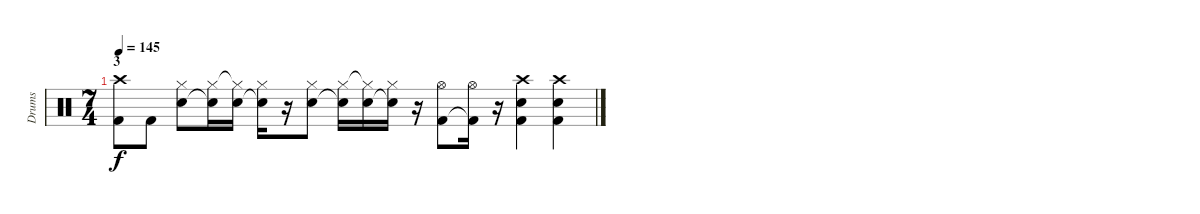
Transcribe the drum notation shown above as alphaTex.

\track ("Drums" "Drums") {instrument percussion}
\staff {score}
\articulation defaults
\ts (7 4)
\section ("" "3")
\tempo 145
\clef neutral
\ks c
("Crash high (hit)" "Kick (hit) 2").8{dy f} "Kick (hit) 2".8 ("Hi-Hat (closed)" "Electric Snare (hit)").8 ("Hi-Hat (closed)" "Electric Snare (hit)"{t}).16 ("Hi-Hat (closed)"{t} "Electric Snare (hit)").16 ("Hi-Hat (closed)" "Electric Snare (hit)"{t}).16 r.16 ("Hi-Hat (closed)" "Electric Snare (hit)").8 ("Hi-Hat (closed)" "Electric Snare (hit)"{t}).16 ("Hi-Hat (closed)"{t} "Electric Snare (hit)").16 ("Hi-Hat (closed)" "Electric Snare (hit)"{t}).16 r.16 ("Hi-Hat (open)" "Kick (hit) 2").8 ("Hi-Hat (open)" "Kick (hit) 2"{t}).16 r.16 ("Crash high (hit)" "Electric Snare (hit)" "Kick (hit) 2").4 ("Crash high (hit)" "Electric Snare (hit)" "Kick (hit) 2").4
